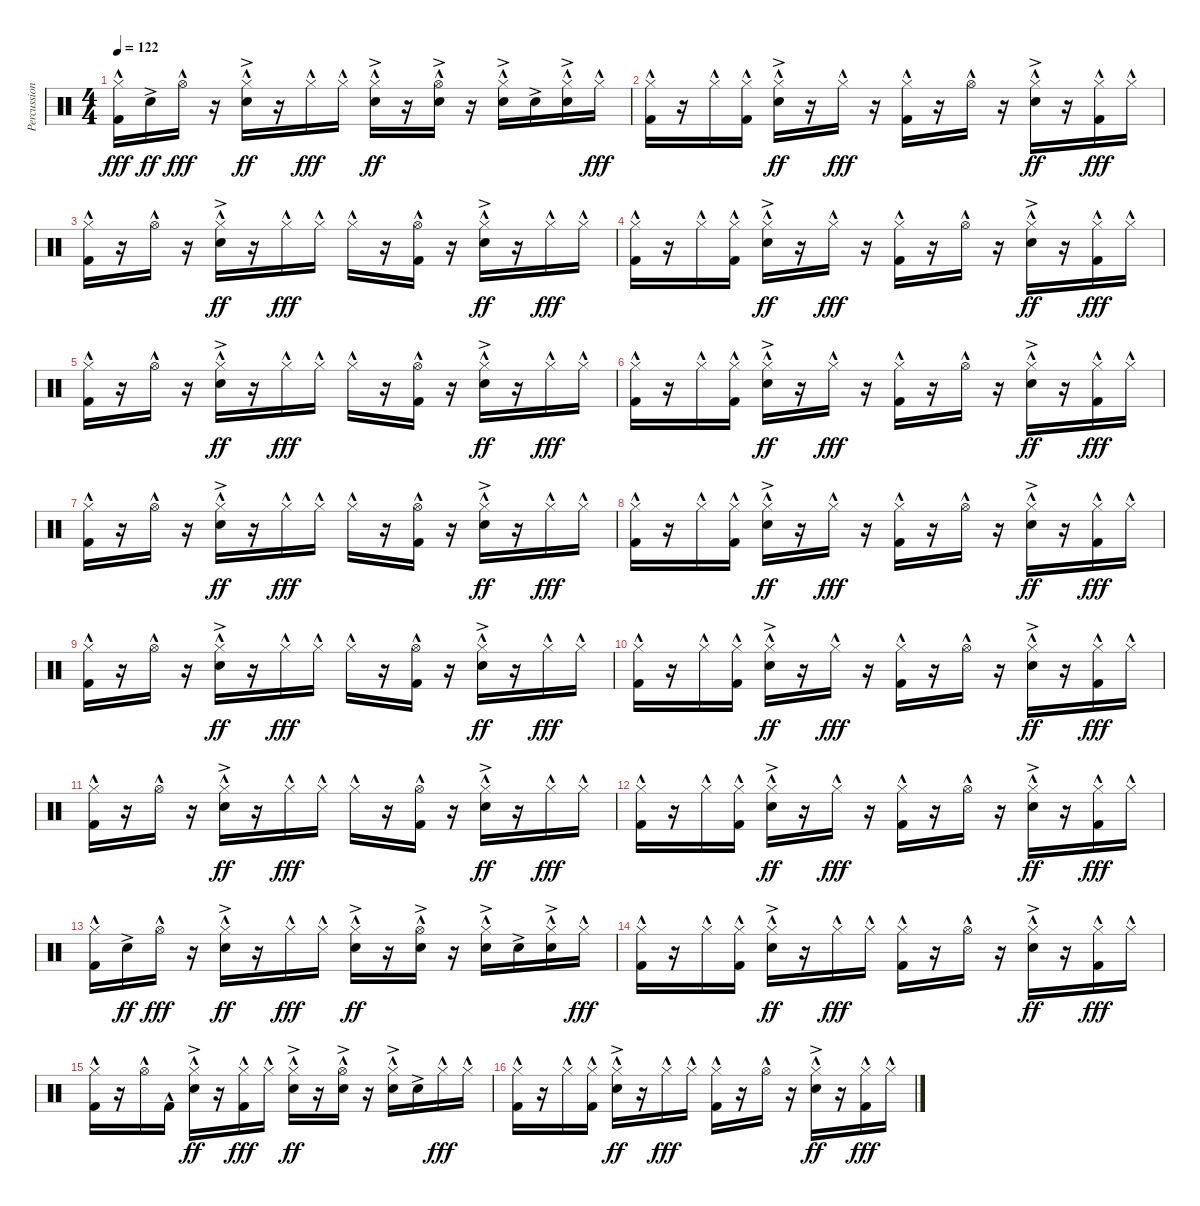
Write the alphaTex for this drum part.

\track ("Percussion" "Percussion") {instrument percussion}
\staff {score}
\articulation defaults
\ts (4 4)
\tempo 122
\clef neutral
\ks c
("Hi-Hat (closed)"{hac} "Kick (hit) 2"{hac}).16{dy fff} "Snare (hit) 2"{ac}.16{dy ff} "Hi-Hat (open)"{hac}.16{dy fff} r.16 ("Hi-Hat (closed)"{hac} "Snare (hit) 2"{ac}).16{dy ff} r.16 "Hi-Hat (closed)"{hac}.16{dy fff} "Hi-Hat (closed)"{hac}.16 ("Hi-Hat (closed)"{hac} "Snare (hit) 2"{ac}).16{dy ff} r.16 ("Hi-Hat (open)"{hac} "Snare (hit) 2"{ac}).16 r.16 ("Hi-Hat (closed)"{hac} "Snare (hit) 2"{ac}).16 "Snare (hit) 2"{ac}.16 ("Hi-Hat (closed)"{hac} "Snare (hit) 2"{ac}).16 "Hi-Hat (closed)"{hac}.16{dy fff} |
("Hi-Hat (closed)"{hac} "Kick (hit) 2"{hac}).16 r.16 "Hi-Hat (closed)"{hac}.16 ("Hi-Hat (closed)"{hac} "Kick (hit) 2"{hac}).16 ("Hi-Hat (closed)"{hac} "Snare (hit) 2"{ac}).16{dy ff} r.16 "Hi-Hat (closed)"{hac}.16{dy fff} r.16 ("Hi-Hat (closed)"{hac} "Kick (hit) 2"{hac}).16 r.16 "Hi-Hat (open)"{hac}.16 r.16 ("Hi-Hat (closed)"{hac} "Snare (hit) 2"{ac}).16{dy ff} r.16 ("Hi-Hat (closed)"{hac} "Kick (hit) 2"{hac}).16{dy fff} "Hi-Hat (closed)"{hac}.16 |
("Hi-Hat (closed)"{hac} "Kick (hit) 2"{hac}).16 r.16 "Hi-Hat (open)"{hac}.16 r.16 ("Hi-Hat (closed)"{hac} "Snare (hit) 2"{ac}).16{dy ff} r.16 "Hi-Hat (closed)"{hac}.16{dy fff} "Hi-Hat (closed)"{hac}.16 "Hi-Hat (closed)"{hac}.16 r.16 ("Hi-Hat (open)"{hac} "Kick (hit) 2"{hac}).16 r.16 ("Hi-Hat (closed)"{hac} "Snare (hit) 2"{ac}).16{dy ff} r.16 "Hi-Hat (closed)"{hac}.16{dy fff} "Hi-Hat (closed)"{hac}.16 |
("Hi-Hat (closed)"{hac} "Kick (hit) 2"{hac}).16 r.16 "Hi-Hat (closed)"{hac}.16 ("Hi-Hat (closed)"{hac} "Kick (hit) 2"{hac}).16 ("Hi-Hat (closed)"{hac} "Snare (hit) 2"{ac}).16{dy ff} r.16 "Hi-Hat (closed)"{hac}.16{dy fff} r.16 ("Hi-Hat (closed)"{hac} "Kick (hit) 2"{hac}).16 r.16 "Hi-Hat (open)"{hac}.16 r.16 ("Hi-Hat (closed)"{hac} "Snare (hit) 2"{ac}).16{dy ff} r.16 ("Hi-Hat (closed)"{hac} "Kick (hit) 2"{hac}).16{dy fff} "Hi-Hat (closed)"{hac}.16 |
("Hi-Hat (closed)"{hac} "Kick (hit) 2"{hac}).16 r.16 "Hi-Hat (open)"{hac}.16 r.16 ("Hi-Hat (closed)"{hac} "Snare (hit) 2"{ac}).16{dy ff} r.16 "Hi-Hat (closed)"{hac}.16{dy fff} "Hi-Hat (closed)"{hac}.16 "Hi-Hat (closed)"{hac}.16 r.16 ("Hi-Hat (open)"{hac} "Kick (hit) 2"{hac}).16 r.16 ("Hi-Hat (closed)"{hac} "Snare (hit) 2"{ac}).16{dy ff} r.16 "Hi-Hat (closed)"{hac}.16{dy fff} "Hi-Hat (closed)"{hac}.16 |
("Hi-Hat (closed)"{hac} "Kick (hit) 2"{hac}).16 r.16 "Hi-Hat (closed)"{hac}.16 ("Hi-Hat (closed)"{hac} "Kick (hit) 2"{hac}).16 ("Hi-Hat (closed)"{hac} "Snare (hit) 2"{ac}).16{dy ff} r.16 "Hi-Hat (closed)"{hac}.16{dy fff} r.16 ("Hi-Hat (closed)"{hac} "Kick (hit) 2"{hac}).16 r.16 "Hi-Hat (open)"{hac}.16 r.16 ("Hi-Hat (closed)"{hac} "Snare (hit) 2"{ac}).16{dy ff} r.16 ("Hi-Hat (closed)"{hac} "Kick (hit) 2"{hac}).16{dy fff} "Hi-Hat (closed)"{hac}.16 |
("Hi-Hat (closed)"{hac} "Kick (hit) 2"{hac}).16 r.16 "Hi-Hat (open)"{hac}.16 r.16 ("Hi-Hat (closed)"{hac} "Snare (hit) 2"{ac}).16{dy ff} r.16 "Hi-Hat (closed)"{hac}.16{dy fff} "Hi-Hat (closed)"{hac}.16 "Hi-Hat (closed)"{hac}.16 r.16 ("Hi-Hat (open)"{hac} "Kick (hit) 2"{hac}).16 r.16 ("Hi-Hat (closed)"{hac} "Snare (hit) 2"{ac}).16{dy ff} r.16 "Hi-Hat (closed)"{hac}.16{dy fff} "Hi-Hat (closed)"{hac}.16 |
("Hi-Hat (closed)"{hac} "Kick (hit) 2"{hac}).16 r.16 "Hi-Hat (closed)"{hac}.16 ("Hi-Hat (closed)"{hac} "Kick (hit) 2"{hac}).16 ("Hi-Hat (closed)"{hac} "Snare (hit) 2"{ac}).16{dy ff} r.16 "Hi-Hat (closed)"{hac}.16{dy fff} r.16 ("Hi-Hat (closed)"{hac} "Kick (hit) 2"{hac}).16 r.16 "Hi-Hat (open)"{hac}.16 r.16 ("Hi-Hat (closed)"{hac} "Snare (hit) 2"{ac}).16{dy ff} r.16 ("Hi-Hat (closed)"{hac} "Kick (hit) 2"{hac}).16{dy fff} "Hi-Hat (closed)"{hac}.16 |
("Hi-Hat (closed)"{hac} "Kick (hit) 2"{hac}).16 r.16 "Hi-Hat (open)"{hac}.16 r.16 ("Hi-Hat (closed)"{hac} "Snare (hit) 2"{ac}).16{dy ff} r.16 "Hi-Hat (closed)"{hac}.16{dy fff} "Hi-Hat (closed)"{hac}.16 "Hi-Hat (closed)"{hac}.16 r.16 ("Hi-Hat (open)"{hac} "Kick (hit) 2"{hac}).16 r.16 ("Hi-Hat (closed)"{hac} "Snare (hit) 2"{ac}).16{dy ff} r.16 "Hi-Hat (closed)"{hac}.16{dy fff} "Hi-Hat (closed)"{hac}.16 |
("Hi-Hat (closed)"{hac} "Kick (hit) 2"{hac}).16 r.16 "Hi-Hat (closed)"{hac}.16 ("Hi-Hat (closed)"{hac} "Kick (hit) 2"{hac}).16 ("Hi-Hat (closed)"{hac} "Snare (hit) 2"{ac}).16{dy ff} r.16 "Hi-Hat (closed)"{hac}.16{dy fff} r.16 ("Hi-Hat (closed)"{hac} "Kick (hit) 2"{hac}).16 r.16 "Hi-Hat (open)"{hac}.16 r.16 ("Hi-Hat (closed)"{hac} "Snare (hit) 2"{ac}).16{dy ff} r.16 ("Hi-Hat (closed)"{hac} "Kick (hit) 2"{hac}).16{dy fff} "Hi-Hat (closed)"{hac}.16 |
("Hi-Hat (closed)"{hac} "Kick (hit) 2"{hac}).16 r.16 "Hi-Hat (open)"{hac}.16 r.16 ("Hi-Hat (closed)"{hac} "Snare (hit) 2"{ac}).16{dy ff} r.16 "Hi-Hat (closed)"{hac}.16{dy fff} "Hi-Hat (closed)"{hac}.16 "Hi-Hat (closed)"{hac}.16 r.16 ("Hi-Hat (open)"{hac} "Kick (hit) 2"{hac}).16 r.16 ("Hi-Hat (closed)"{hac} "Snare (hit) 2"{ac}).16{dy ff} r.16 "Hi-Hat (closed)"{hac}.16{dy fff} "Hi-Hat (closed)"{hac}.16 |
("Hi-Hat (closed)"{hac} "Kick (hit) 2"{hac}).16 r.16 "Hi-Hat (closed)"{hac}.16 ("Hi-Hat (closed)"{hac} "Kick (hit) 2"{hac}).16 ("Hi-Hat (closed)"{hac} "Snare (hit) 2"{ac}).16{dy ff} r.16 "Hi-Hat (closed)"{hac}.16{dy fff} r.16 ("Hi-Hat (closed)"{hac} "Kick (hit) 2"{hac}).16 r.16 "Hi-Hat (open)"{hac}.16 r.16 ("Hi-Hat (closed)"{hac} "Snare (hit) 2"{ac}).16{dy ff} r.16 ("Hi-Hat (closed)"{hac} "Kick (hit) 2"{hac}).16{dy fff} "Hi-Hat (closed)"{hac}.16 |
("Hi-Hat (closed)"{hac} "Kick (hit) 2"{hac}).16 "Snare (hit) 2"{ac}.16{dy ff} "Hi-Hat (open)"{hac}.16{dy fff} r.16 ("Hi-Hat (closed)"{hac} "Snare (hit) 2"{ac}).16{dy ff} r.16 "Hi-Hat (closed)"{hac}.16{dy fff} "Hi-Hat (closed)"{hac}.16 ("Hi-Hat (closed)"{hac} "Snare (hit) 2"{ac}).16{dy ff} r.16 ("Hi-Hat (open)"{hac} "Snare (hit) 2"{ac}).16 r.16 ("Hi-Hat (closed)"{hac} "Snare (hit) 2"{ac}).16 "Snare (hit) 2"{ac}.16 ("Hi-Hat (closed)"{hac} "Snare (hit) 2"{ac}).16 "Hi-Hat (closed)"{hac}.16{dy fff} |
("Hi-Hat (closed)"{hac} "Kick (hit) 2"{hac}).16 r.16 "Hi-Hat (closed)"{hac}.16 ("Hi-Hat (closed)"{hac} "Kick (hit) 2"{hac}).16 ("Hi-Hat (closed)"{hac} "Snare (hit) 2"{ac}).16{dy ff} r.16 "Hi-Hat (closed)"{hac}.16{dy fff} "Hi-Hat (closed)"{hac}.16 ("Hi-Hat (closed)"{hac} "Kick (hit) 2"{hac}).16 r.16 "Hi-Hat (open)"{hac}.16 r.16 ("Hi-Hat (closed)"{hac} "Snare (hit) 2"{ac}).16{dy ff} r.16 ("Hi-Hat (closed)"{hac} "Kick (hit) 2"{hac}).16{dy fff} "Hi-Hat (closed)"{hac}.16 |
("Hi-Hat (closed)"{hac} "Kick (hit) 2"{hac}).16 r.16 "Hi-Hat (open)"{hac}.16 "Kick (hit) 2"{hac}.16 ("Hi-Hat (closed)"{hac} "Snare (hit) 2"{ac}).16{dy ff} r.16 ("Hi-Hat (closed)"{hac} "Kick (hit) 2"{hac}).16{dy fff} "Hi-Hat (closed)"{hac}.16 ("Hi-Hat (closed)"{hac} "Snare (hit) 2"{ac}).16{dy ff} r.16 ("Hi-Hat (open)"{hac} "Snare (hit) 2"{ac}).16 r.16 ("Hi-Hat (closed)"{hac} "Snare (hit) 2"{ac}).16 "Snare (hit) 2"{ac}.16 "Hi-Hat (closed)"{hac}.16{dy fff} "Hi-Hat (closed)"{hac}.16 |
("Hi-Hat (closed)"{hac} "Kick (hit) 2"{hac}).16 r.16 "Hi-Hat (closed)"{hac}.16 ("Hi-Hat (closed)"{hac} "Kick (hit) 2"{hac}).16 ("Hi-Hat (closed)"{hac} "Snare (hit) 2"{ac}).16{dy ff} r.16 "Hi-Hat (closed)"{hac}.16{dy fff} "Hi-Hat (closed)"{hac}.16 ("Hi-Hat (closed)"{hac} "Kick (hit) 2"{hac}).16 r.16 "Hi-Hat (open)"{hac}.16 r.16 ("Hi-Hat (closed)"{hac} "Snare (hit) 2"{ac}).16{dy ff} r.16 ("Hi-Hat (closed)"{hac} "Kick (hit) 2"{hac}).16{dy fff} "Hi-Hat (closed)"{hac}.16
